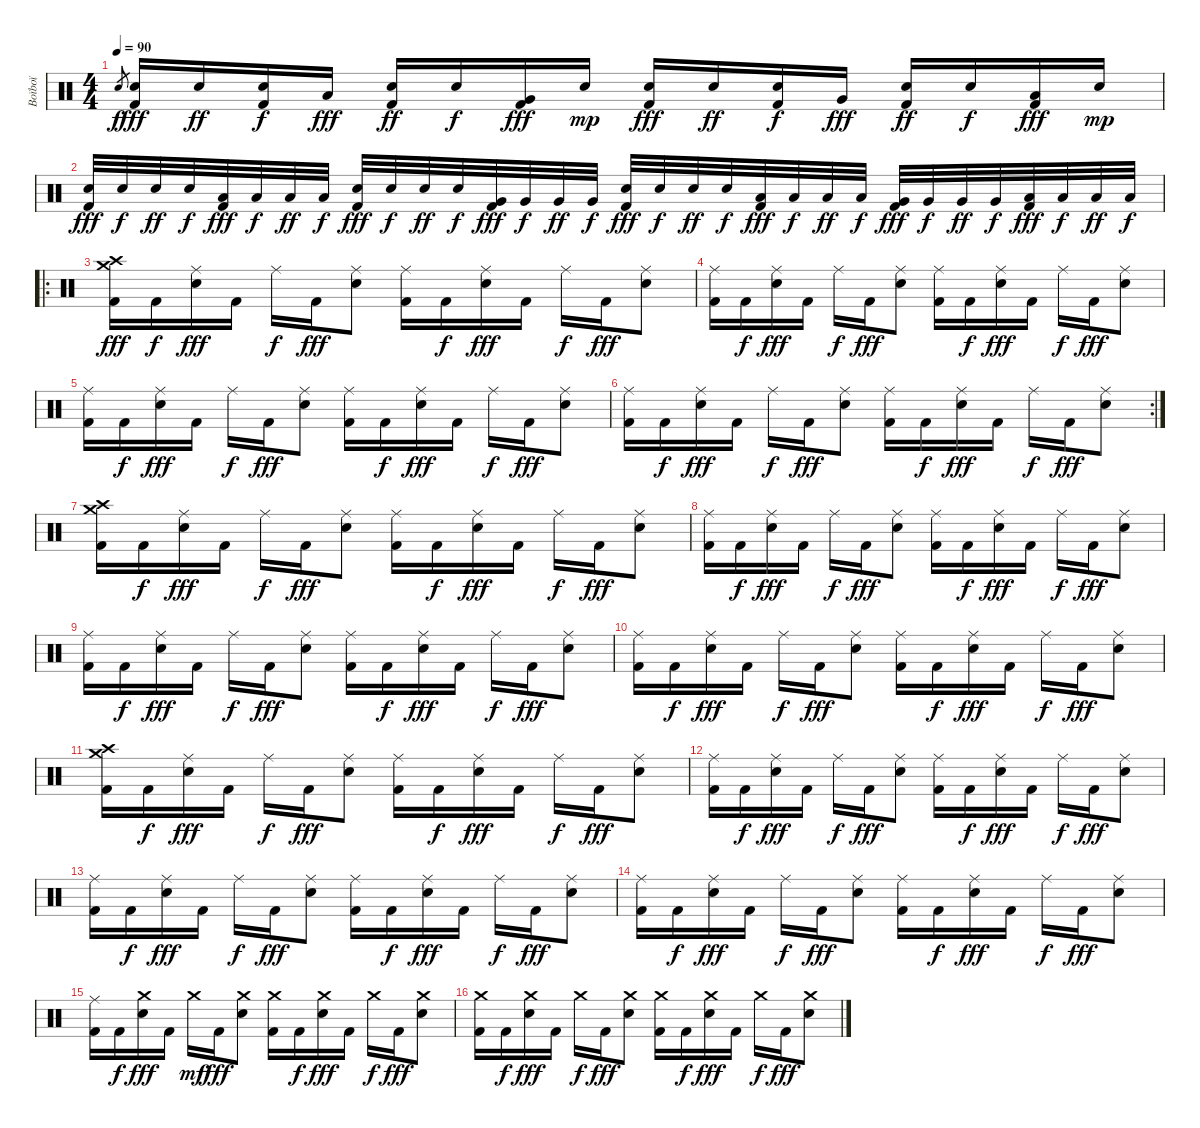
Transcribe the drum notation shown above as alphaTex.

\track ("Boïboï" "Boïboï") {instrument percussion}
\staff {score}
\articulation defaults
\ts (4 4)
\tempo 90
\clef neutral
\ks c "Electric Snare (hit)".8{gr dy f}
("Electric Snare (hit)" "Kick (hit) 2").16{dy fff} "Electric Snare (hit)".16{dy ff} ("Electric Snare (hit)" "Kick (hit) 2").16{dy f} "Low Tom (hit)".16{dy fff} ("Electric Snare (hit)" "Kick (hit) 2").16{dy ff} "Electric Snare (hit)".16{dy f} ("Very Low Tom (hit)" "Kick (hit) 2").16{dy fff} "Electric Snare (hit)".16{dy mp} ("Electric Snare (hit)" "Kick (hit) 2").16{dy fff} "Electric Snare (hit)".16{dy ff} ("Electric Snare (hit)" "Kick (hit) 2").16{dy f} "Very Low Tom (hit)".16{dy fff} ("Electric Snare (hit)" "Kick (hit) 2").16{dy ff} "Electric Snare (hit)".16{dy f} ("Low Floor Tom (hit)" "Kick (hit) 2").16{dy fff} "Electric Snare (hit)".16{dy mp} |
("Electric Snare (hit)" "Kick (hit) 2").32{dy fff} "Electric Snare (hit)".32{dy f} "Electric Snare (hit)".32{dy ff} "Electric Snare (hit)".32{dy f} ("Low Tom (hit)" "Kick (hit) 2").32{dy fff} "Low Tom (hit)".32{dy f} "Low Tom (hit)".32{dy ff} "Low Tom (hit)".32{dy f} ("Electric Snare (hit)" "Kick (hit) 2").32{dy fff} "Electric Snare (hit)".32{dy f} "Electric Snare (hit)".32{dy ff} "Electric Snare (hit)".32{dy f} ("Very Low Tom (hit)" "Kick (hit) 2").32{dy fff} "Very Low Tom (hit)".32{dy f} "Very Low Tom (hit)".32{dy ff} "Very Low Tom (hit)".32{dy f} ("Electric Snare (hit)" "Kick (hit) 2").32{dy fff} "Electric Snare (hit)".32{dy f} "Electric Snare (hit)".32{dy ff} "Electric Snare (hit)".32{dy f} ("Low Tom (hit)" "Kick (hit) 2").32{dy fff} "Low Tom (hit)".32{dy f} "Low Tom (hit)".32{dy ff} "Low Tom (hit)".32{dy f} ("Very Low Tom (hit)" "Kick (hit) 2").32{dy fff} "Very Low Tom (hit)".32{dy f} "Very Low Tom (hit)".32{dy ff} "Very Low Tom (hit)".32{dy f} ("Low Floor Tom (hit)" "Kick (hit) 2").32{dy fff} "Low Floor Tom (hit)".32{dy f} "Low Floor Tom (hit)".32{dy ff} "Low Floor Tom (hit)".32{dy f} |
\ro
("Crash medium (hit)" "Crash high (hit)" "Kick (hit) 2").16{dy fff} "Kick (hit) 2".16{dy f} ("Ride (middle)" "Electric Snare (hit)").16{dy fff} "Kick (hit) 2".16 "Ride (middle)".16{dy f} "Kick (hit) 2".16{dy fff} ("Ride (middle)" "Electric Snare (hit)").8 ("Ride (middle)" "Kick (hit) 2").16 "Kick (hit) 2".16{dy f} ("Ride (middle)" "Electric Snare (hit)").16{dy fff} "Kick (hit) 2".16 "Ride (middle)".16{dy f} "Kick (hit) 2".16{dy fff} ("Ride (middle)" "Electric Snare (hit)").8 |
("Ride (middle)" "Kick (hit) 2").16 "Kick (hit) 2".16{dy f} ("Ride (middle)" "Electric Snare (hit)").16{dy fff} "Kick (hit) 2".16 "Ride (middle)".16{dy f} "Kick (hit) 2".16{dy fff} ("Ride (middle)" "Electric Snare (hit)").8 ("Ride (middle)" "Kick (hit) 2").16 "Kick (hit) 2".16{dy f} ("Ride (middle)" "Electric Snare (hit)").16{dy fff} "Kick (hit) 2".16 "Ride (middle)".16{dy f} "Kick (hit) 2".16{dy fff} ("Ride (middle)" "Electric Snare (hit)").8 |
("Ride (middle)" "Kick (hit) 2").16 "Kick (hit) 2".16{dy f} ("Ride (middle)" "Electric Snare (hit)").16{dy fff} "Kick (hit) 2".16 "Ride (middle)".16{dy f} "Kick (hit) 2".16{dy fff} ("Ride (middle)" "Electric Snare (hit)").8 ("Ride (middle)" "Kick (hit) 2").16 "Kick (hit) 2".16{dy f} ("Ride (middle)" "Electric Snare (hit)").16{dy fff} "Kick (hit) 2".16 "Ride (middle)".16{dy f} "Kick (hit) 2".16{dy fff} ("Ride (middle)" "Electric Snare (hit)").8 |
\rc 2
("Ride (middle)" "Kick (hit) 2").16 "Kick (hit) 2".16{dy f} ("Ride (middle)" "Electric Snare (hit)").16{dy fff} "Kick (hit) 2".16 "Ride (middle)".16{dy f} "Kick (hit) 2".16{dy fff} ("Ride (middle)" "Electric Snare (hit)").8 ("Ride (middle)" "Kick (hit) 2").16 "Kick (hit) 2".16{dy f} ("Ride (middle)" "Electric Snare (hit)").16{dy fff} "Kick (hit) 2".16 "Ride (middle)".16{dy f} "Kick (hit) 2".16{dy fff} ("Ride (middle)" "Electric Snare (hit)").8 |
("Crash medium (hit)" "Crash high (hit)" "Kick (hit) 2").16 "Kick (hit) 2".16{dy f} ("Ride (middle)" "Electric Snare (hit)").16{dy fff} "Kick (hit) 2".16 "Ride (middle)".16{dy f} "Kick (hit) 2".16{dy fff} ("Ride (middle)" "Electric Snare (hit)").8 ("Ride (middle)" "Kick (hit) 2").16 "Kick (hit) 2".16{dy f} ("Ride (middle)" "Electric Snare (hit)").16{dy fff} "Kick (hit) 2".16 "Ride (middle)".16{dy f} "Kick (hit) 2".16{dy fff} ("Ride (middle)" "Electric Snare (hit)").8 |
("Ride (middle)" "Kick (hit) 2").16 "Kick (hit) 2".16{dy f} ("Ride (middle)" "Electric Snare (hit)").16{dy fff} "Kick (hit) 2".16 "Ride (middle)".16{dy f} "Kick (hit) 2".16{dy fff} ("Ride (middle)" "Electric Snare (hit)").8 ("Ride (middle)" "Kick (hit) 2").16 "Kick (hit) 2".16{dy f} ("Ride (middle)" "Electric Snare (hit)").16{dy fff} "Kick (hit) 2".16 "Ride (middle)".16{dy f} "Kick (hit) 2".16{dy fff} ("Ride (middle)" "Electric Snare (hit)").8 |
("Ride (middle)" "Kick (hit) 2").16 "Kick (hit) 2".16{dy f} ("Ride (middle)" "Electric Snare (hit)").16{dy fff} "Kick (hit) 2".16 "Ride (middle)".16{dy f} "Kick (hit) 2".16{dy fff} ("Ride (middle)" "Electric Snare (hit)").8 ("Ride (middle)" "Kick (hit) 2").16 "Kick (hit) 2".16{dy f} ("Ride (middle)" "Electric Snare (hit)").16{dy fff} "Kick (hit) 2".16 "Ride (middle)".16{dy f} "Kick (hit) 2".16{dy fff} ("Ride (middle)" "Electric Snare (hit)").8 |
("Ride (middle)" "Kick (hit) 2").16 "Kick (hit) 2".16{dy f} ("Ride (middle)" "Electric Snare (hit)").16{dy fff} "Kick (hit) 2".16 "Ride (middle)".16{dy f} "Kick (hit) 2".16{dy fff} ("Ride (middle)" "Electric Snare (hit)").8 ("Ride (middle)" "Kick (hit) 2").16 "Kick (hit) 2".16{dy f} ("Ride (middle)" "Electric Snare (hit)").16{dy fff} "Kick (hit) 2".16 "Ride (middle)".16{dy f} "Kick (hit) 2".16{dy fff} ("Ride (middle)" "Electric Snare (hit)").8 |
("Crash medium (hit)" "Crash high (hit)" "Kick (hit) 2").16 "Kick (hit) 2".16{dy f} ("Ride (middle)" "Electric Snare (hit)").16{dy fff} "Kick (hit) 2".16 "Ride (middle)".16{dy f} "Kick (hit) 2".16{dy fff} ("Ride (middle)" "Electric Snare (hit)").8 ("Ride (middle)" "Kick (hit) 2").16 "Kick (hit) 2".16{dy f} ("Ride (middle)" "Electric Snare (hit)").16{dy fff} "Kick (hit) 2".16 "Ride (middle)".16{dy f} "Kick (hit) 2".16{dy fff} ("Ride (middle)" "Electric Snare (hit)").8 |
("Ride (middle)" "Kick (hit) 2").16 "Kick (hit) 2".16{dy f} ("Ride (middle)" "Electric Snare (hit)").16{dy fff} "Kick (hit) 2".16 "Ride (middle)".16{dy f} "Kick (hit) 2".16{dy fff} ("Ride (middle)" "Electric Snare (hit)").8 ("Ride (middle)" "Kick (hit) 2").16 "Kick (hit) 2".16{dy f} ("Ride (middle)" "Electric Snare (hit)").16{dy fff} "Kick (hit) 2".16 "Ride (middle)".16{dy f} "Kick (hit) 2".16{dy fff} ("Ride (middle)" "Electric Snare (hit)").8 |
("Ride (middle)" "Kick (hit) 2").16 "Kick (hit) 2".16{dy f} ("Ride (middle)" "Electric Snare (hit)").16{dy fff} "Kick (hit) 2".16 "Ride (middle)".16{dy f} "Kick (hit) 2".16{dy fff} ("Ride (middle)" "Electric Snare (hit)").8 ("Ride (middle)" "Kick (hit) 2").16 "Kick (hit) 2".16{dy f} ("Ride (middle)" "Electric Snare (hit)").16{dy fff} "Kick (hit) 2".16 "Ride (middle)".16{dy f} "Kick (hit) 2".16{dy fff} ("Ride (middle)" "Electric Snare (hit)").8 |
("Ride (middle)" "Kick (hit) 2").16 "Kick (hit) 2".16{dy f} ("Ride (middle)" "Electric Snare (hit)").16{dy fff} "Kick (hit) 2".16 "Ride (middle)".16{dy f} "Kick (hit) 2".16{dy fff} ("Ride (middle)" "Electric Snare (hit)").8 ("Ride (middle)" "Kick (hit) 2").16 "Kick (hit) 2".16{dy f} ("Ride (middle)" "Electric Snare (hit)").16{dy fff} "Kick (hit) 2".16 "Ride (middle)".16{dy f} "Kick (hit) 2".16{dy fff} ("Ride (middle)" "Electric Snare (hit)").8 |
("Ride (middle)" "Kick (hit) 2").16 "Kick (hit) 2".16{dy f} ("Crash medium (hit)" "Electric Snare (hit)").16{dy fff} "Kick (hit) 2".16 "Crash medium (hit)".16{dy mf} "Kick (hit) 2".16{dy fff} ("Crash medium (hit)" "Electric Snare (hit)").8 ("Crash medium (hit)" "Kick (hit) 2").16 "Kick (hit) 2".16{dy f} ("Crash medium (hit)" "Electric Snare (hit)").16{dy fff} "Kick (hit) 2".16 "Crash medium (hit)".16{dy f} "Kick (hit) 2".16{dy fff} ("Crash medium (hit)" "Electric Snare (hit)").8 |
("Crash medium (hit)" "Kick (hit) 2").16 "Kick (hit) 2".16{dy f} ("Crash medium (hit)" "Electric Snare (hit)").16{dy fff} "Kick (hit) 2".16 "Crash medium (hit)".16{dy f} "Kick (hit) 2".16{dy fff} ("Crash medium (hit)" "Electric Snare (hit)").8 ("Crash medium (hit)" "Kick (hit) 2").16 "Kick (hit) 2".16{dy f} ("Crash medium (hit)" "Electric Snare (hit)").16{dy fff} "Kick (hit) 2".16 "Crash medium (hit)".16{dy f} "Kick (hit) 2".16{dy fff} ("Crash medium (hit)" "Electric Snare (hit)").8
